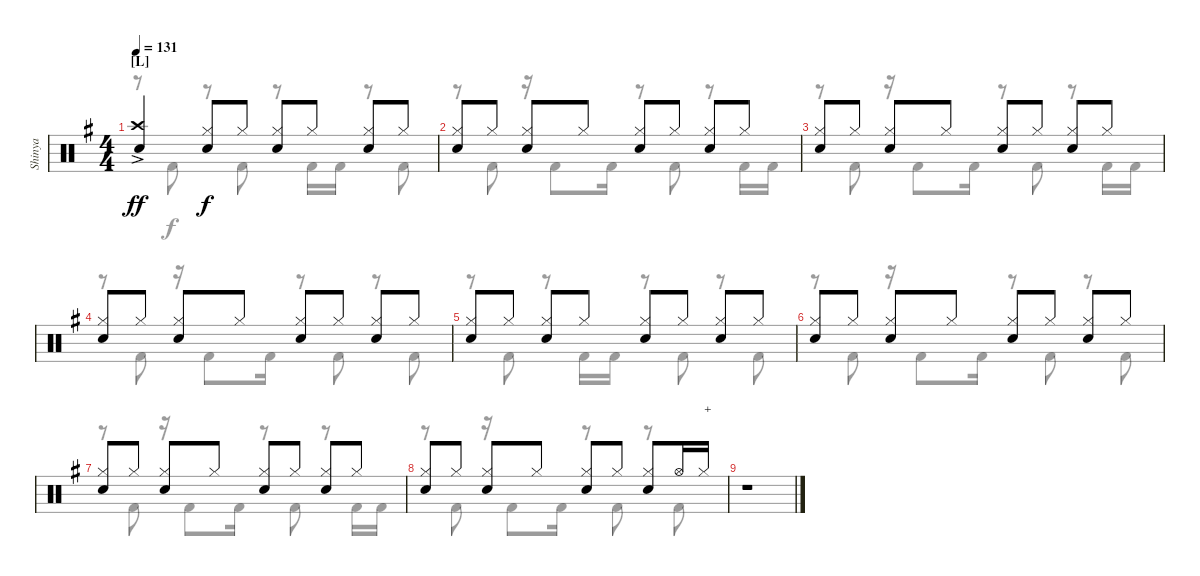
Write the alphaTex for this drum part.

\track ("Shinya" "Shinya") {instrument percussion}
\staff {score}
\articulation defaults
\voice
\ts (4 4)
\section ("" "[L]")
\tempo 131
\clef neutral
\ks eminor
("Crash high (hit)"{ac} "Snare (hit) 2").4{dy ff} ("Hi-Hat (closed)" "Snare (hit) 2").8{dy f} "Hi-Hat (closed)".8 ("Hi-Hat (closed)" "Snare (hit) 2").8 "Hi-Hat (closed)".8 ("Hi-Hat (closed)" "Snare (hit) 2").8 "Hi-Hat (closed)".8 |
("Hi-Hat (closed)" "Snare (hit) 2").8 "Hi-Hat (closed)".8 ("Hi-Hat (closed)" "Snare (hit) 2").8 "Hi-Hat (closed)".8 ("Hi-Hat (closed)" "Snare (hit) 2").8 "Hi-Hat (closed)".8 ("Hi-Hat (closed)" "Snare (hit) 2").8 "Hi-Hat (closed)".8 |
("Hi-Hat (closed)" "Snare (hit) 2").8 "Hi-Hat (closed)".8 ("Hi-Hat (closed)" "Snare (hit) 2").8 "Hi-Hat (closed)".8 ("Hi-Hat (closed)" "Snare (hit) 2").8 "Hi-Hat (closed)".8 ("Hi-Hat (closed)" "Snare (hit) 2").8 "Hi-Hat (closed)".8 |
("Hi-Hat (closed)" "Snare (hit) 2").8 "Hi-Hat (closed)".8 ("Hi-Hat (closed)" "Snare (hit) 2").8 "Hi-Hat (closed)".8 ("Hi-Hat (closed)" "Snare (hit) 2").8 "Hi-Hat (closed)".8 ("Hi-Hat (closed)" "Snare (hit) 2").8 "Hi-Hat (closed)".8 |
("Hi-Hat (closed)" "Snare (hit) 2").8 "Hi-Hat (closed)".8 ("Hi-Hat (closed)" "Snare (hit) 2").8 "Hi-Hat (closed)".8 ("Hi-Hat (closed)" "Snare (hit) 2").8 "Hi-Hat (closed)".8 ("Hi-Hat (closed)" "Snare (hit) 2").8 "Hi-Hat (closed)".8 |
("Hi-Hat (closed)" "Snare (hit) 2").8 "Hi-Hat (closed)".8 ("Hi-Hat (closed)" "Snare (hit) 2").8 "Hi-Hat (closed)".8 ("Hi-Hat (closed)" "Snare (hit) 2").8 "Hi-Hat (closed)".8 ("Hi-Hat (closed)" "Snare (hit) 2").8 "Hi-Hat (closed)".8 |
("Hi-Hat (closed)" "Snare (hit) 2").8 "Hi-Hat (closed)".8 ("Hi-Hat (closed)" "Snare (hit) 2").8 "Hi-Hat (closed)".8 ("Hi-Hat (closed)" "Snare (hit) 2").8 "Hi-Hat (closed)".8 ("Hi-Hat (closed)" "Snare (hit) 2").8 "Hi-Hat (closed)".8 |
("Hi-Hat (closed)" "Snare (hit) 2").8 "Hi-Hat (closed)".8 ("Hi-Hat (closed)" "Snare (hit) 2").8 "Hi-Hat (closed)".8 ("Hi-Hat (closed)" "Snare (hit) 2").8 "Hi-Hat (closed)".8 ("Hi-Hat (closed)" "Snare (hit) 2").8 "Hi-Hat (open)".16 "Hi-Hat (closed)".16{txt "+"} |
r.1
\voice
\clef neutral
\ottava regular
\simile none
\ks eminor
r.8{dy f} "Kick (hit) 2".8 r.8 "Kick (hit) 2".8 r.8 "Kick (hit) 2".16 "Kick (hit) 2".16 r.8 "Kick (hit) 2".8 |
r.8 "Kick (hit) 2".8 r.16 "Kick (hit) 2".8 "Kick (hit) 2".16 r.8 "Kick (hit) 2".8 r.8 "Kick (hit) 2".16 "Kick (hit) 2".16 |
r.8 "Kick (hit) 2".8 r.16 "Kick (hit) 2".8 "Kick (hit) 2".16 r.8 "Kick (hit) 2".8 r.8 "Kick (hit) 2".16 "Kick (hit) 2".16 |
r.8 "Kick (hit) 2".8 r.16 "Kick (hit) 2".8 "Kick (hit) 2".16 r.8 "Kick (hit) 2".8 r.8 "Kick (hit) 2".8 |
r.8 "Kick (hit) 2".8 r.8 "Kick (hit) 2".16 "Kick (hit) 2".16 r.8 "Kick (hit) 2".8 r.8 "Kick (hit) 2".8 |
r.8 "Kick (hit) 2".8 r.16 "Kick (hit) 2".8 "Kick (hit) 2".16 r.8 "Kick (hit) 2".8 r.8 "Kick (hit) 2".8 |
r.8 "Kick (hit) 2".8 r.16 "Kick (hit) 2".8 "Kick (hit) 2".16 r.8 "Kick (hit) 2".8 r.8 "Kick (hit) 2".16 "Kick (hit) 2".16 |
r.8 "Kick (hit) 2".8 r.16 "Kick (hit) 2".8 "Kick (hit) 2".16 r.8 "Kick (hit) 2".8 r.8 "Kick (hit) 2".8 |
r.1
